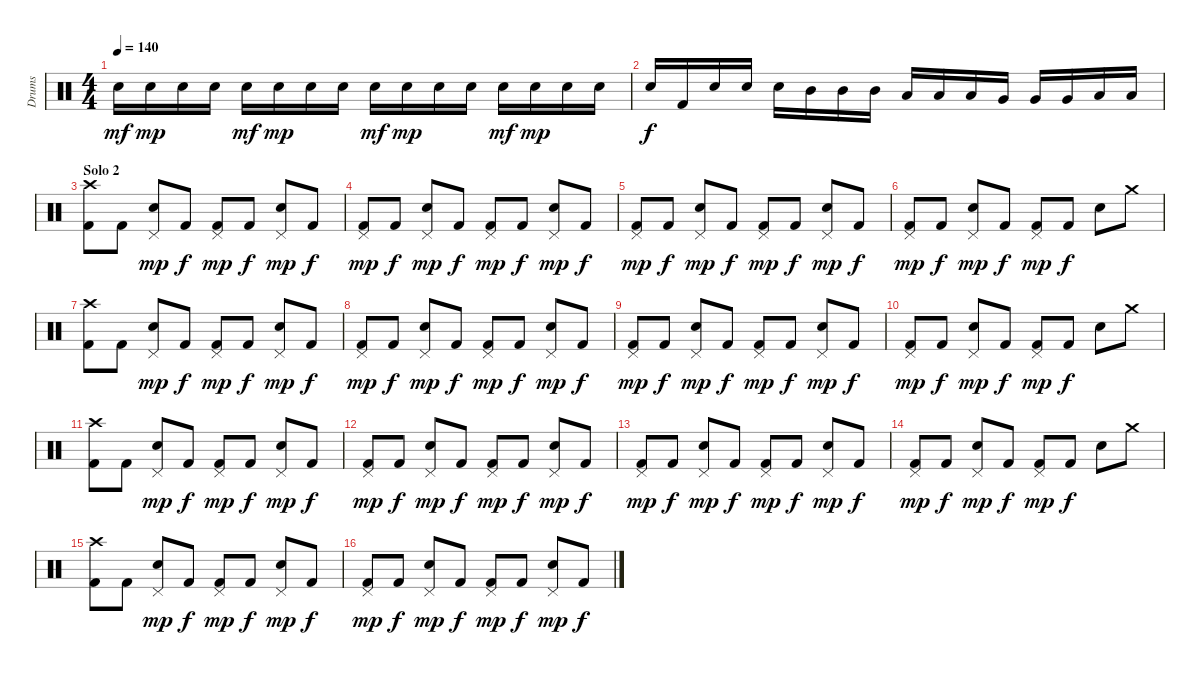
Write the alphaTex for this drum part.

\track ("Drums" "Drums") {instrument percussion}
\staff {score}
\articulation defaults
\ts (4 4)
\tempo 140
\clef neutral
\ks c "Snare (hit) 2".16{dy mf} "Snare (hit) 2".16{dy mp} "Snare (hit) 2".16 "Snare (hit) 2".16 "Snare (hit) 2".16{dy mf} "Snare (hit) 2".16{dy mp} "Snare (hit) 2".16 "Snare (hit) 2".16 "Snare (hit) 2".16{dy mf} "Snare (hit) 2".16{dy mp} "Snare (hit) 2".16 "Snare (hit) 2".16 "Snare (hit) 2".16{dy mf} "Snare (hit) 2".16{dy mp} "Snare (hit) 2".16 "Snare (hit) 2".16
|
"Snare (hit) 2".16{dy f} "Kick (hit) 2".16 "Snare (hit) 2".16 "Snare (hit) 2".16 "Snare (hit) 2".16 "Mid Tom (hit)".16 "Mid Tom (hit)".16 "Mid Tom (hit)".16 "Low Tom (hit)".16 "Low Tom (hit)".16 "Low Tom (hit)".16 "Very Low Tom (hit)".16 "Very Low Tom (hit)".16 "Very Low Tom (hit)".16 "Low Floor Tom (hit)".16 "Low Floor Tom (hit)".16 |
\section ("" "Solo 2")
("Crash high (hit)" "Kick (hit) 2").8 "Kick (hit) 2".8 ("Pedal Hi-Hat (hit)" "Snare (hit) 2").8{dy mp} "Kick (hit) 2".8{dy f} ("Pedal Hi-Hat (hit)" "Kick (hit) 2").8{dy mp} "Kick (hit) 2".8{dy f} ("Pedal Hi-Hat (hit)" "Snare (hit) 2").8{dy mp} "Kick (hit) 2".8{dy f} |
("Pedal Hi-Hat (hit)" "Kick (hit) 2").8{dy mp} "Kick (hit) 2".8{dy f} ("Pedal Hi-Hat (hit)" "Snare (hit) 2").8{dy mp} "Kick (hit) 2".8{dy f} ("Pedal Hi-Hat (hit)" "Kick (hit) 2").8{dy mp} "Kick (hit) 2".8{dy f} ("Pedal Hi-Hat (hit)" "Snare (hit) 2").8{dy mp} "Kick (hit) 2".8{dy f} |
("Pedal Hi-Hat (hit)" "Kick (hit) 2").8{dy mp} "Kick (hit) 2".8{dy f} ("Pedal Hi-Hat (hit)" "Snare (hit) 2").8{dy mp} "Kick (hit) 2".8{dy f} ("Pedal Hi-Hat (hit)" "Kick (hit) 2").8{dy mp} "Kick (hit) 2".8{dy f} ("Pedal Hi-Hat (hit)" "Snare (hit) 2").8{dy mp} "Kick (hit) 2".8{dy f} |
("Pedal Hi-Hat (hit)" "Kick (hit) 2").8{dy mp} "Kick (hit) 2".8{dy f} ("Pedal Hi-Hat (hit)" "Snare (hit) 2").8{dy mp} "Kick (hit) 2".8{dy f} ("Pedal Hi-Hat (hit)" "Kick (hit) 2").8{dy mp} "Kick (hit) 2".8{dy f} "Snare (hit) 2".8 "Crash medium (hit)".8 |
("Crash high (hit)" "Kick (hit) 2").8 "Kick (hit) 2".8 ("Pedal Hi-Hat (hit)" "Snare (hit) 2").8{dy mp} "Kick (hit) 2".8{dy f} ("Pedal Hi-Hat (hit)" "Kick (hit) 2").8{dy mp} "Kick (hit) 2".8{dy f} ("Pedal Hi-Hat (hit)" "Snare (hit) 2").8{dy mp} "Kick (hit) 2".8{dy f} |
("Pedal Hi-Hat (hit)" "Kick (hit) 2").8{dy mp} "Kick (hit) 2".8{dy f} ("Pedal Hi-Hat (hit)" "Snare (hit) 2").8{dy mp} "Kick (hit) 2".8{dy f} ("Pedal Hi-Hat (hit)" "Kick (hit) 2").8{dy mp} "Kick (hit) 2".8{dy f} ("Pedal Hi-Hat (hit)" "Snare (hit) 2").8{dy mp} "Kick (hit) 2".8{dy f} |
("Pedal Hi-Hat (hit)" "Kick (hit) 2").8{dy mp} "Kick (hit) 2".8{dy f} ("Pedal Hi-Hat (hit)" "Snare (hit) 2").8{dy mp} "Kick (hit) 2".8{dy f} ("Pedal Hi-Hat (hit)" "Kick (hit) 2").8{dy mp} "Kick (hit) 2".8{dy f} ("Pedal Hi-Hat (hit)" "Snare (hit) 2").8{dy mp} "Kick (hit) 2".8{dy f} |
("Pedal Hi-Hat (hit)" "Kick (hit) 2").8{dy mp} "Kick (hit) 2".8{dy f} ("Pedal Hi-Hat (hit)" "Snare (hit) 2").8{dy mp} "Kick (hit) 2".8{dy f} ("Pedal Hi-Hat (hit)" "Kick (hit) 2").8{dy mp} "Kick (hit) 2".8{dy f} "Snare (hit) 2".8 "Crash medium (hit)".8 |
("Crash high (hit)" "Kick (hit) 2").8 "Kick (hit) 2".8 ("Pedal Hi-Hat (hit)" "Snare (hit) 2").8{dy mp} "Kick (hit) 2".8{dy f} ("Pedal Hi-Hat (hit)" "Kick (hit) 2").8{dy mp} "Kick (hit) 2".8{dy f} ("Pedal Hi-Hat (hit)" "Snare (hit) 2").8{dy mp} "Kick (hit) 2".8{dy f} |
("Pedal Hi-Hat (hit)" "Kick (hit) 2").8{dy mp} "Kick (hit) 2".8{dy f} ("Pedal Hi-Hat (hit)" "Snare (hit) 2").8{dy mp} "Kick (hit) 2".8{dy f} ("Pedal Hi-Hat (hit)" "Kick (hit) 2").8{dy mp} "Kick (hit) 2".8{dy f} ("Pedal Hi-Hat (hit)" "Snare (hit) 2").8{dy mp} "Kick (hit) 2".8{dy f} |
("Pedal Hi-Hat (hit)" "Kick (hit) 2").8{dy mp} "Kick (hit) 2".8{dy f} ("Pedal Hi-Hat (hit)" "Snare (hit) 2").8{dy mp} "Kick (hit) 2".8{dy f} ("Pedal Hi-Hat (hit)" "Kick (hit) 2").8{dy mp} "Kick (hit) 2".8{dy f} ("Pedal Hi-Hat (hit)" "Snare (hit) 2").8{dy mp} "Kick (hit) 2".8{dy f} |
("Pedal Hi-Hat (hit)" "Kick (hit) 2").8{dy mp} "Kick (hit) 2".8{dy f} ("Pedal Hi-Hat (hit)" "Snare (hit) 2").8{dy mp} "Kick (hit) 2".8{dy f} ("Pedal Hi-Hat (hit)" "Kick (hit) 2").8{dy mp} "Kick (hit) 2".8{dy f} "Snare (hit) 2".8 "Crash medium (hit)".8 |
("Crash high (hit)" "Kick (hit) 2").8 "Kick (hit) 2".8 ("Pedal Hi-Hat (hit)" "Snare (hit) 2").8{dy mp} "Kick (hit) 2".8{dy f} ("Pedal Hi-Hat (hit)" "Kick (hit) 2").8{dy mp} "Kick (hit) 2".8{dy f} ("Pedal Hi-Hat (hit)" "Snare (hit) 2").8{dy mp} "Kick (hit) 2".8{dy f} |
("Pedal Hi-Hat (hit)" "Kick (hit) 2").8{dy mp} "Kick (hit) 2".8{dy f} ("Pedal Hi-Hat (hit)" "Snare (hit) 2").8{dy mp} "Kick (hit) 2".8{dy f} ("Pedal Hi-Hat (hit)" "Kick (hit) 2").8{dy mp} "Kick (hit) 2".8{dy f} ("Pedal Hi-Hat (hit)" "Snare (hit) 2").8{dy mp} "Kick (hit) 2".8{dy f}
